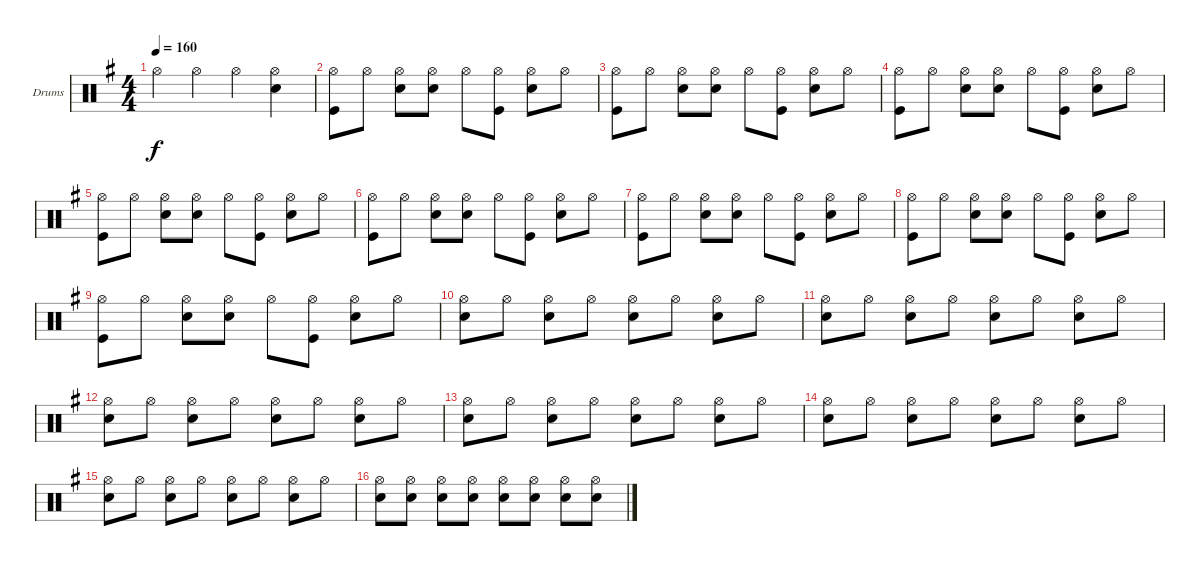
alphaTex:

\bracketExtendMode groupsimilarinstruments
\firstSystemTrackNameOrientation horizontal
\otherSystemsTrackNameOrientation horizontal
\track ("Fabrizio Moretti" "Drums") {instrument percussion}
\staff {score}
\articulation defaults
\ts (4 4)
\tempo 160
\clef neutral
\ks g "Hi-Hat (open)".4{dy f} "Hi-Hat (open)".4 "Hi-Hat (open)".4
("Hi-Hat (open)" "Snare (hit) 2").4 |
("Hi-Hat (open)" "Kick (hit)").8 "Hi-Hat (open)".8 ("Hi-Hat (open)" "Snare (hit) 2").8 ("Hi-Hat (open)" "Snare (hit) 2").8 "Hi-Hat (open)".8 ("Hi-Hat (open)" "Kick (hit)").8 ("Hi-Hat (open)" "Snare (hit) 2").8 "Hi-Hat (open)".8 |
("Hi-Hat (open)" "Kick (hit)").8 "Hi-Hat (open)".8 ("Hi-Hat (open)" "Snare (hit) 2").8 ("Hi-Hat (open)" "Snare (hit) 2").8 "Hi-Hat (open)".8 ("Hi-Hat (open)" "Kick (hit)").8 ("Hi-Hat (open)" "Snare (hit) 2").8 "Hi-Hat (open)".8 |
("Hi-Hat (open)" "Kick (hit)").8 "Hi-Hat (open)".8 ("Hi-Hat (open)" "Snare (hit) 2").8 ("Hi-Hat (open)" "Snare (hit) 2").8 "Hi-Hat (open)".8 ("Hi-Hat (open)" "Kick (hit)").8 ("Hi-Hat (open)" "Snare (hit) 2").8 "Hi-Hat (open)".8 |
("Hi-Hat (open)" "Kick (hit)").8 "Hi-Hat (open)".8 ("Hi-Hat (open)" "Snare (hit) 2").8 ("Hi-Hat (open)" "Snare (hit) 2").8 "Hi-Hat (open)".8 ("Hi-Hat (open)" "Kick (hit)").8 ("Hi-Hat (open)" "Snare (hit) 2").8 "Hi-Hat (open)".8 |
("Hi-Hat (open)" "Kick (hit)").8 "Hi-Hat (open)".8 ("Hi-Hat (open)" "Snare (hit) 2").8 ("Hi-Hat (open)" "Snare (hit) 2").8 "Hi-Hat (open)".8 ("Hi-Hat (open)" "Kick (hit)").8 ("Hi-Hat (open)" "Snare (hit) 2").8 "Hi-Hat (open)".8 |
("Hi-Hat (open)" "Kick (hit)").8 "Hi-Hat (open)".8 ("Hi-Hat (open)" "Snare (hit) 2").8 ("Hi-Hat (open)" "Snare (hit) 2").8 "Hi-Hat (open)".8 ("Hi-Hat (open)" "Kick (hit)").8 ("Hi-Hat (open)" "Snare (hit) 2").8 "Hi-Hat (open)".8 |
("Hi-Hat (open)" "Kick (hit)").8 "Hi-Hat (open)".8 ("Hi-Hat (open)" "Snare (hit) 2").8 ("Hi-Hat (open)" "Snare (hit) 2").8 "Hi-Hat (open)".8 ("Hi-Hat (open)" "Kick (hit)").8 ("Hi-Hat (open)" "Snare (hit) 2").8 "Hi-Hat (open)".8 |
("Hi-Hat (open)" "Kick (hit)").8 "Hi-Hat (open)".8 ("Hi-Hat (open)" "Snare (hit) 2").8 ("Hi-Hat (open)" "Snare (hit) 2").8 "Hi-Hat (open)".8 ("Hi-Hat (open)" "Kick (hit)").8 ("Hi-Hat (open)" "Snare (hit) 2").8 "Hi-Hat (open)".8 |
("Hi-Hat (open)" "Snare (hit) 2").8 "Hi-Hat (open)".8 ("Hi-Hat (open)" "Snare (hit) 2").8 "Hi-Hat (open)".8 ("Hi-Hat (open)" "Snare (hit) 2").8 "Hi-Hat (open)".8 ("Hi-Hat (open)" "Snare (hit) 2").8 "Hi-Hat (open)".8 |
("Hi-Hat (open)" "Snare (hit) 2").8 "Hi-Hat (open)".8 ("Hi-Hat (open)" "Snare (hit) 2").8 "Hi-Hat (open)".8 ("Hi-Hat (open)" "Snare (hit) 2").8 "Hi-Hat (open)".8 ("Hi-Hat (open)" "Snare (hit) 2").8 "Hi-Hat (open)".8 |
("Hi-Hat (open)" "Snare (hit) 2").8 "Hi-Hat (open)".8 ("Hi-Hat (open)" "Snare (hit) 2").8 "Hi-Hat (open)".8 ("Hi-Hat (open)" "Snare (hit) 2").8 "Hi-Hat (open)".8 ("Hi-Hat (open)" "Snare (hit) 2").8 "Hi-Hat (open)".8 |
("Hi-Hat (open)" "Snare (hit) 2").8 "Hi-Hat (open)".8 ("Hi-Hat (open)" "Snare (hit) 2").8 "Hi-Hat (open)".8 ("Hi-Hat (open)" "Snare (hit) 2").8 "Hi-Hat (open)".8 ("Hi-Hat (open)" "Snare (hit) 2").8 "Hi-Hat (open)".8 |
("Hi-Hat (open)" "Snare (hit) 2").8 "Hi-Hat (open)".8 ("Hi-Hat (open)" "Snare (hit) 2").8 "Hi-Hat (open)".8 ("Hi-Hat (open)" "Snare (hit) 2").8 "Hi-Hat (open)".8 ("Hi-Hat (open)" "Snare (hit) 2").8 "Hi-Hat (open)".8 |
("Hi-Hat (open)" "Snare (hit) 2").8 "Hi-Hat (open)".8 ("Hi-Hat (open)" "Snare (hit) 2").8 "Hi-Hat (open)".8 ("Hi-Hat (open)" "Snare (hit) 2").8 "Hi-Hat (open)".8 ("Hi-Hat (open)" "Snare (hit) 2").8 "Hi-Hat (open)".8 |
("Hi-Hat (open)" "Snare (hit) 2").8 ("Hi-Hat (open)" "Snare (hit) 2").8 ("Hi-Hat (open)" "Snare (hit) 2").8 ("Hi-Hat (open)" "Snare (hit) 2").8 ("Hi-Hat (open)" "Snare (hit) 2").8 ("Hi-Hat (open)" "Snare (hit) 2").8 ("Hi-Hat (open)" "Snare (hit) 2").8 ("Hi-Hat (open)" "Snare (hit) 2").8
